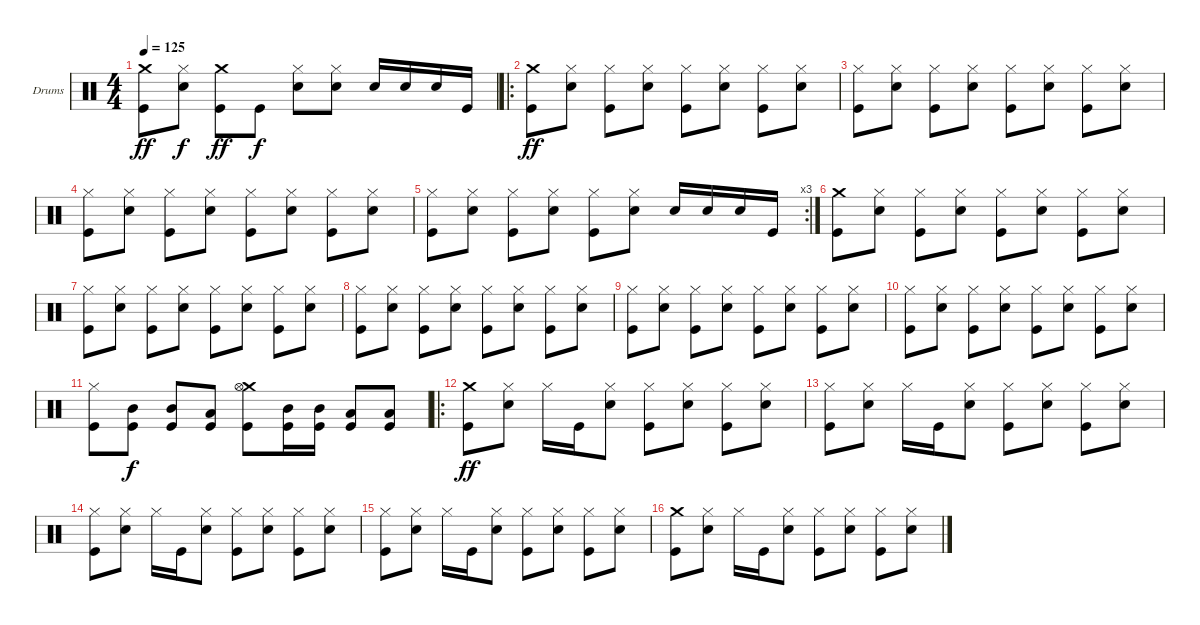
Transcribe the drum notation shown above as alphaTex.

\defaultSystemsLayout 4
\bracketExtendMode groupsimilarinstruments
\firstSystemTrackNameOrientation horizontal
\otherSystemsTrackNameOrientation horizontal
\track ("Drumkit" "Drums") {instrument percussion}
\staff {score}
\articulation defaults
\ts (4 4)
\tempo 125
\clef neutral
\ks c
("Kick (hit)" "Crash medium (hit)").8{dy ff} ("Snare (hit) 2" "Hi-Hat (closed)").8{dy f} ("Kick (hit)" "Crash medium (hit)").8{dy ff} "Kick (hit)".8{dy f} ("Snare (hit) 2" "Hi-Hat (closed)").8 ("Snare (hit) 2" "Hi-Hat (closed)").8 "Snare (hit) 2".16 "Snare (hit) 2".16 "Snare (hit) 2".16 "Kick (hit)".16 |
\ro
("Kick (hit)" "Crash medium (hit)").8{dy ff} ("Snare (hit) 2" "Hi-Hat (closed)").8 ("Kick (hit)" "Hi-Hat (closed)").8 ("Snare (hit) 2" "Hi-Hat (closed)").8 ("Kick (hit)" "Hi-Hat (closed)").8 ("Snare (hit) 2" "Hi-Hat (closed)").8 ("Kick (hit)" "Hi-Hat (closed)").8 ("Snare (hit) 2" "Hi-Hat (closed)").8 |
("Kick (hit)" "Hi-Hat (closed)").8 ("Snare (hit) 2" "Hi-Hat (closed)").8 ("Kick (hit)" "Hi-Hat (closed)").8 ("Snare (hit) 2" "Hi-Hat (closed)").8 ("Kick (hit)" "Hi-Hat (closed)").8 ("Snare (hit) 2" "Hi-Hat (closed)").8 ("Kick (hit)" "Hi-Hat (closed)").8 ("Snare (hit) 2" "Hi-Hat (closed)").8 |
("Kick (hit)" "Hi-Hat (closed)").8 ("Snare (hit) 2" "Hi-Hat (closed)").8 ("Kick (hit)" "Hi-Hat (closed)").8 ("Snare (hit) 2" "Hi-Hat (closed)").8 ("Kick (hit)" "Hi-Hat (closed)").8 ("Snare (hit) 2" "Hi-Hat (closed)").8 ("Kick (hit)" "Hi-Hat (closed)").8 ("Snare (hit) 2" "Hi-Hat (closed)").8 |
\rc 3
("Kick (hit)" "Hi-Hat (closed)").8 ("Snare (hit) 2" "Hi-Hat (closed)").8 ("Kick (hit)" "Hi-Hat (closed)").8 ("Snare (hit) 2" "Hi-Hat (closed)").8 ("Kick (hit)" "Hi-Hat (closed)").8 ("Snare (hit) 2" "Hi-Hat (closed)").8 "Snare (hit) 2".16 "Snare (hit) 2".16 "Snare (hit) 2".16 "Kick (hit)".16 |
("Kick (hit)" "Crash medium (hit)").8 ("Snare (hit) 2" "Hi-Hat (closed)").8 ("Kick (hit)" "Hi-Hat (closed)").8 ("Snare (hit) 2" "Hi-Hat (closed)").8 ("Kick (hit)" "Hi-Hat (closed)").8 ("Snare (hit) 2" "Hi-Hat (closed)").8 ("Kick (hit)" "Hi-Hat (closed)").8 ("Snare (hit) 2" "Hi-Hat (closed)").8 |
("Kick (hit)" "Hi-Hat (closed)").8 ("Snare (hit) 2" "Hi-Hat (closed)").8 ("Kick (hit)" "Hi-Hat (closed)").8 ("Snare (hit) 2" "Hi-Hat (closed)").8 ("Kick (hit)" "Hi-Hat (closed)").8 ("Snare (hit) 2" "Hi-Hat (closed)").8 ("Kick (hit)" "Hi-Hat (closed)").8 ("Snare (hit) 2" "Hi-Hat (closed)").8 |
("Kick (hit)" "Hi-Hat (closed)").8 ("Snare (hit) 2" "Hi-Hat (closed)").8 ("Kick (hit)" "Hi-Hat (closed)").8 ("Snare (hit) 2" "Hi-Hat (closed)").8 ("Kick (hit)" "Hi-Hat (closed)").8 ("Snare (hit) 2" "Hi-Hat (closed)").8 ("Kick (hit)" "Hi-Hat (closed)").8 ("Snare (hit) 2" "Hi-Hat (closed)").8 |
("Kick (hit)" "Hi-Hat (closed)").8 ("Snare (hit) 2" "Hi-Hat (closed)").8 ("Kick (hit)" "Hi-Hat (closed)").8 ("Snare (hit) 2" "Hi-Hat (closed)").8 ("Kick (hit)" "Hi-Hat (closed)").8 ("Snare (hit) 2" "Hi-Hat (closed)").8 ("Kick (hit)" "Hi-Hat (closed)").8 ("Snare (hit) 2" "Hi-Hat (closed)").8 |
("Kick (hit)" "Hi-Hat (closed)").8 ("Snare (hit) 2" "Hi-Hat (closed)").8 ("Kick (hit)" "Hi-Hat (closed)").8 ("Snare (hit) 2" "Hi-Hat (closed)").8 ("Kick (hit)" "Hi-Hat (closed)").8 ("Snare (hit) 2" "Hi-Hat (closed)").8 ("Kick (hit)" "Hi-Hat (closed)").8 ("Snare (hit) 2" "Hi-Hat (closed)").8 |
("Kick (hit)" "Hi-Hat (closed)").8 ("Mid Tom (hit)" "Kick (hit)").8{dy f} ("Mid Tom (hit)" "Kick (hit)").8 ("Low Tom (hit)" "Kick (hit)").8 ("Kick (hit)" "Crash medium (hit)" "Hi-Hat (open)").8 ("Mid Tom (hit)" "Kick (hit)").16 ("Mid Tom (hit)" "Kick (hit)").16 ("Low Tom (hit)" "Kick (hit)").8 ("Low Tom (hit)" "Kick (hit)").8 |
\ro
("Kick (hit)" "Crash medium (hit)").8{dy ff} ("Snare (hit) 2" "Hi-Hat (closed)").8 "Hi-Hat (closed)".16 "Kick (hit)".16 ("Snare (hit) 2" "Hi-Hat (closed)").8 ("Kick (hit)" "Hi-Hat (closed)").8 ("Snare (hit) 2" "Hi-Hat (closed)").8 ("Kick (hit)" "Hi-Hat (closed)").8 ("Snare (hit) 2" "Hi-Hat (closed)").8 |
("Kick (hit)" "Hi-Hat (closed)").8 ("Snare (hit) 2" "Hi-Hat (closed)").8 "Hi-Hat (closed)".16 "Kick (hit)".16 ("Snare (hit) 2" "Hi-Hat (closed)").8 ("Kick (hit)" "Hi-Hat (closed)").8 ("Snare (hit) 2" "Hi-Hat (closed)").8 ("Kick (hit)" "Hi-Hat (closed)").8 ("Snare (hit) 2" "Hi-Hat (closed)").8 |
("Kick (hit)" "Hi-Hat (closed)").8 ("Snare (hit) 2" "Hi-Hat (closed)").8 "Hi-Hat (closed)".16 "Kick (hit)".16 ("Snare (hit) 2" "Hi-Hat (closed)").8 ("Kick (hit)" "Hi-Hat (closed)").8 ("Snare (hit) 2" "Hi-Hat (closed)").8 ("Kick (hit)" "Hi-Hat (closed)").8 ("Snare (hit) 2" "Hi-Hat (closed)").8 |
("Kick (hit)" "Hi-Hat (closed)").8 ("Snare (hit) 2" "Hi-Hat (closed)").8 "Hi-Hat (closed)".16 "Kick (hit)".16 ("Snare (hit) 2" "Hi-Hat (closed)").8 ("Kick (hit)" "Hi-Hat (closed)").8 ("Snare (hit) 2" "Hi-Hat (closed)").8 ("Kick (hit)" "Hi-Hat (closed)").8 ("Snare (hit) 2" "Hi-Hat (closed)").8 |
("Kick (hit)" "Crash medium (hit)").8 ("Snare (hit) 2" "Hi-Hat (closed)").8 "Hi-Hat (closed)".16 "Kick (hit)".16 ("Snare (hit) 2" "Hi-Hat (closed)").8 ("Kick (hit)" "Hi-Hat (closed)").8 ("Snare (hit) 2" "Hi-Hat (closed)").8 ("Kick (hit)" "Hi-Hat (closed)").8 ("Snare (hit) 2" "Hi-Hat (closed)").8
